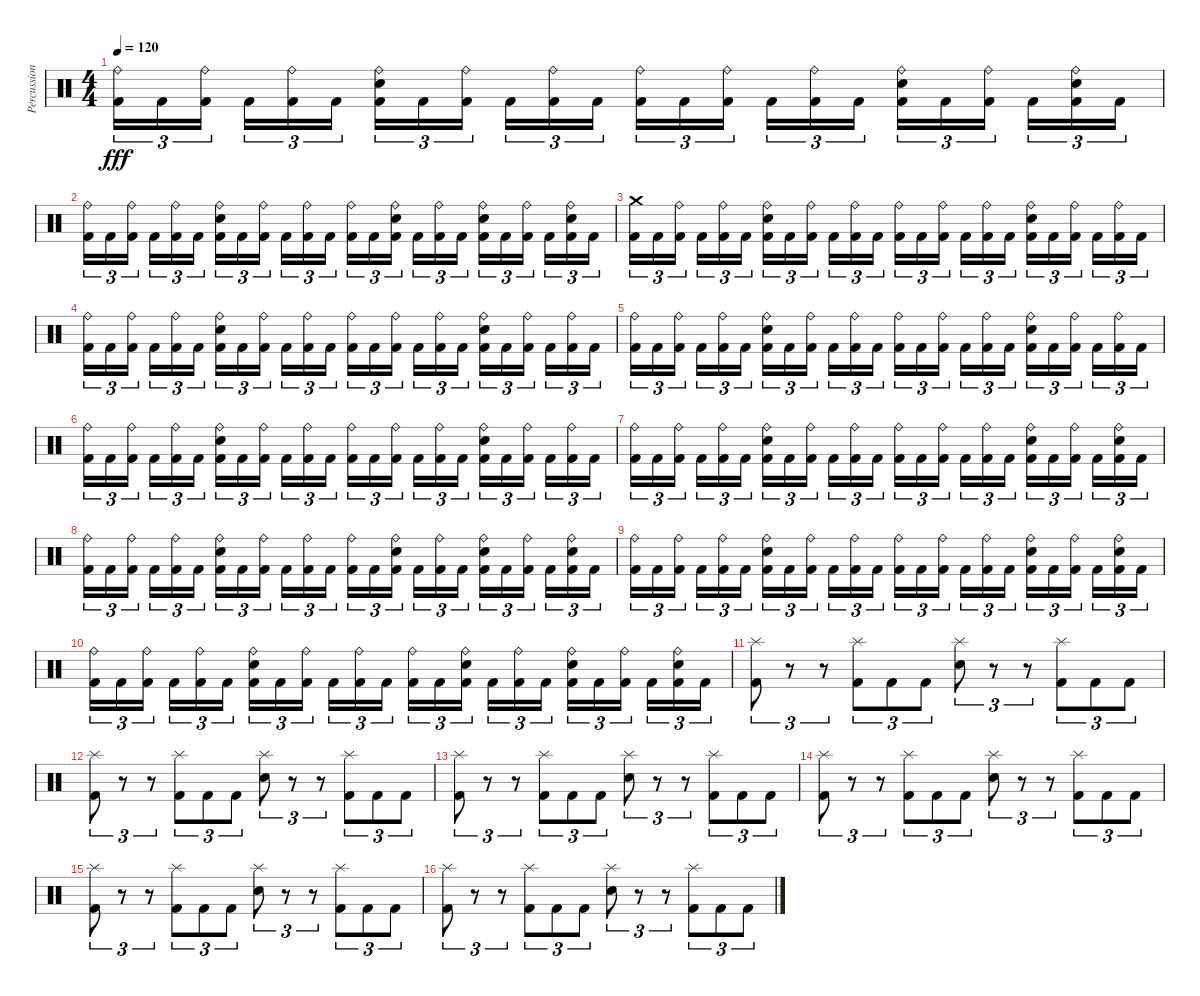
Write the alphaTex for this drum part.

\track ("Percussions" "Percussion") {instrument percussion}
\staff {score}
\articulation defaults
\ts (4 4)
\tempo 120
\clef neutral
\ks c
("Ride (bell)" "Kick (hit) 2").16{tu (3 2) dy fff} "Kick (hit) 2".16{tu (3 2)} ("Ride (bell)" "Kick (hit) 2").16{tu (3 2) beam splitsecondary} "Kick (hit) 2".16{tu (3 2)} ("Ride (bell)" "Kick (hit) 2").16{tu (3 2)} "Kick (hit) 2".16{tu (3 2)} ("Ride (bell)" "Snare (hit) 2" "Kick (hit) 2").16{tu (3 2)} "Kick (hit) 2".16{tu (3 2)} ("Ride (bell)" "Kick (hit) 2").16{tu (3 2) beam splitsecondary} "Kick (hit) 2".16{tu (3 2)} ("Ride (bell)" "Kick (hit) 2").16{tu (3 2)} "Kick (hit) 2".16{tu (3 2)} ("Ride (bell)" "Kick (hit) 2").16{tu (3 2)} "Kick (hit) 2".16{tu (3 2)} ("Ride (bell)" "Kick (hit) 2").16{tu (3 2) beam splitsecondary} "Kick (hit) 2".16{tu (3 2)} ("Ride (bell)" "Kick (hit) 2").16{tu (3 2)} "Kick (hit) 2".16{tu (3 2)} ("Ride (bell)" "Snare (hit) 2" "Kick (hit) 2").16{tu (3 2)} "Kick (hit) 2".16{tu (3 2)} ("Ride (bell)" "Kick (hit) 2").16{tu (3 2) beam splitsecondary} "Kick (hit) 2".16{tu (3 2)} ("Ride (bell)" "Snare (hit) 2" "Kick (hit) 2").16{tu (3 2)} "Kick (hit) 2".16{tu (3 2)} |
("Ride (bell)" "Kick (hit) 2").16{tu (3 2)} "Kick (hit) 2".16{tu (3 2)} ("Ride (bell)" "Kick (hit) 2").16{tu (3 2) beam splitsecondary} "Kick (hit) 2".16{tu (3 2)} ("Ride (bell)" "Kick (hit) 2").16{tu (3 2)} "Kick (hit) 2".16{tu (3 2)} ("Ride (bell)" "Snare (hit) 2" "Kick (hit) 2").16{tu (3 2)} "Kick (hit) 2".16{tu (3 2)} ("Ride (bell)" "Kick (hit) 2").16{tu (3 2) beam splitsecondary} "Kick (hit) 2".16{tu (3 2)} ("Ride (bell)" "Kick (hit) 2").16{tu (3 2)} "Kick (hit) 2".16{tu (3 2)} ("Ride (bell)" "Kick (hit) 2").16{tu (3 2)} "Kick (hit) 2".16{tu (3 2)} ("Ride (bell)" "Snare (hit) 2" "Kick (hit) 2").16{tu (3 2) beam splitsecondary} "Kick (hit) 2".16{tu (3 2)} ("Ride (bell)" "Kick (hit) 2").16{tu (3 2)} "Kick (hit) 2".16{tu (3 2)} ("Ride (bell)" "Snare (hit) 2" "Kick (hit) 2").16{tu (3 2)} "Kick (hit) 2".16{tu (3 2)} ("Ride (bell)" "Kick (hit) 2").16{tu (3 2) beam splitsecondary} "Kick (hit) 2".16{tu (3 2)} ("Ride (bell)" "Snare (hit) 2" "Kick (hit) 2").16{tu (3 2)} "Kick (hit) 2".16{tu (3 2)} |
("Crash medium (hit)" "Kick (hit) 2").16{tu (3 2)} "Kick (hit) 2".16{tu (3 2)} ("Ride (bell)" "Kick (hit) 2").16{tu (3 2) beam splitsecondary} "Kick (hit) 2".16{tu (3 2)} ("Ride (bell)" "Kick (hit) 2").16{tu (3 2)} "Kick (hit) 2".16{tu (3 2)} ("Ride (bell)" "Snare (hit) 2" "Kick (hit) 2").16{tu (3 2)} "Kick (hit) 2".16{tu (3 2)} ("Ride (bell)" "Kick (hit) 2").16{tu (3 2) beam splitsecondary} "Kick (hit) 2".16{tu (3 2)} ("Ride (bell)" "Kick (hit) 2").16{tu (3 2)} "Kick (hit) 2".16{tu (3 2)} ("Ride (bell)" "Kick (hit) 2").16{tu (3 2)} "Kick (hit) 2".16{tu (3 2)} ("Ride (bell)" "Kick (hit) 2").16{tu (3 2) beam splitsecondary} "Kick (hit) 2".16{tu (3 2)} ("Ride (bell)" "Kick (hit) 2").16{tu (3 2)} "Kick (hit) 2".16{tu (3 2)} ("Ride (bell)" "Snare (hit) 2" "Kick (hit) 2").16{tu (3 2)} "Kick (hit) 2".16{tu (3 2)} ("Ride (bell)" "Kick (hit) 2").16{tu (3 2) beam splitsecondary} "Kick (hit) 2".16{tu (3 2)} ("Ride (bell)" "Kick (hit) 2").16{tu (3 2)} "Kick (hit) 2".16{tu (3 2)} |
("Ride (bell)" "Kick (hit) 2").16{tu (3 2)} "Kick (hit) 2".16{tu (3 2)} ("Ride (bell)" "Kick (hit) 2").16{tu (3 2) beam splitsecondary} "Kick (hit) 2".16{tu (3 2)} ("Ride (bell)" "Kick (hit) 2").16{tu (3 2)} "Kick (hit) 2".16{tu (3 2)} ("Ride (bell)" "Snare (hit) 2" "Kick (hit) 2").16{tu (3 2)} "Kick (hit) 2".16{tu (3 2)} ("Ride (bell)" "Kick (hit) 2").16{tu (3 2) beam splitsecondary} "Kick (hit) 2".16{tu (3 2)} ("Ride (bell)" "Kick (hit) 2").16{tu (3 2)} "Kick (hit) 2".16{tu (3 2)} ("Ride (bell)" "Kick (hit) 2").16{tu (3 2)} "Kick (hit) 2".16{tu (3 2)} ("Ride (bell)" "Kick (hit) 2").16{tu (3 2) beam splitsecondary} "Kick (hit) 2".16{tu (3 2)} ("Ride (bell)" "Kick (hit) 2").16{tu (3 2)} "Kick (hit) 2".16{tu (3 2)} ("Ride (bell)" "Snare (hit) 2" "Kick (hit) 2").16{tu (3 2)} "Kick (hit) 2".16{tu (3 2)} ("Ride (bell)" "Kick (hit) 2").16{tu (3 2) beam splitsecondary} "Kick (hit) 2".16{tu (3 2)} ("Ride (bell)" "Kick (hit) 2").16{tu (3 2)} "Kick (hit) 2".16{tu (3 2)} |
("Ride (bell)" "Kick (hit) 2").16{tu (3 2)} "Kick (hit) 2".16{tu (3 2)} ("Ride (bell)" "Kick (hit) 2").16{tu (3 2) beam splitsecondary} "Kick (hit) 2".16{tu (3 2)} ("Ride (bell)" "Kick (hit) 2").16{tu (3 2)} "Kick (hit) 2".16{tu (3 2)} ("Ride (bell)" "Snare (hit) 2" "Kick (hit) 2").16{tu (3 2)} "Kick (hit) 2".16{tu (3 2)} ("Ride (bell)" "Kick (hit) 2").16{tu (3 2) beam splitsecondary} "Kick (hit) 2".16{tu (3 2)} ("Ride (bell)" "Kick (hit) 2").16{tu (3 2)} "Kick (hit) 2".16{tu (3 2)} ("Ride (bell)" "Kick (hit) 2").16{tu (3 2)} "Kick (hit) 2".16{tu (3 2)} ("Ride (bell)" "Kick (hit) 2").16{tu (3 2) beam splitsecondary} "Kick (hit) 2".16{tu (3 2)} ("Ride (bell)" "Kick (hit) 2").16{tu (3 2)} "Kick (hit) 2".16{tu (3 2)} ("Ride (bell)" "Snare (hit) 2" "Kick (hit) 2").16{tu (3 2)} "Kick (hit) 2".16{tu (3 2)} ("Ride (bell)" "Kick (hit) 2").16{tu (3 2) beam splitsecondary} "Kick (hit) 2".16{tu (3 2)} ("Ride (bell)" "Kick (hit) 2").16{tu (3 2)} "Kick (hit) 2".16{tu (3 2)} |
("Ride (bell)" "Kick (hit) 2").16{tu (3 2)} "Kick (hit) 2".16{tu (3 2)} ("Ride (bell)" "Kick (hit) 2").16{tu (3 2) beam splitsecondary} "Kick (hit) 2".16{tu (3 2)} ("Ride (bell)" "Kick (hit) 2").16{tu (3 2)} "Kick (hit) 2".16{tu (3 2)} ("Ride (bell)" "Snare (hit) 2" "Kick (hit) 2").16{tu (3 2)} "Kick (hit) 2".16{tu (3 2)} ("Ride (bell)" "Kick (hit) 2").16{tu (3 2) beam splitsecondary} "Kick (hit) 2".16{tu (3 2)} ("Ride (bell)" "Kick (hit) 2").16{tu (3 2)} "Kick (hit) 2".16{tu (3 2)} ("Ride (bell)" "Kick (hit) 2").16{tu (3 2)} "Kick (hit) 2".16{tu (3 2)} ("Ride (bell)" "Kick (hit) 2").16{tu (3 2) beam splitsecondary} "Kick (hit) 2".16{tu (3 2)} ("Ride (bell)" "Kick (hit) 2").16{tu (3 2)} "Kick (hit) 2".16{tu (3 2)} ("Ride (bell)" "Snare (hit) 2" "Kick (hit) 2").16{tu (3 2)} "Kick (hit) 2".16{tu (3 2)} ("Ride (bell)" "Kick (hit) 2").16{tu (3 2) beam splitsecondary} "Kick (hit) 2".16{tu (3 2)} ("Ride (bell)" "Kick (hit) 2").16{tu (3 2)} "Kick (hit) 2".16{tu (3 2)} |
("Ride (bell)" "Kick (hit) 2").16{tu (3 2)} "Kick (hit) 2".16{tu (3 2)} ("Ride (bell)" "Kick (hit) 2").16{tu (3 2) beam splitsecondary} "Kick (hit) 2".16{tu (3 2)} ("Ride (bell)" "Kick (hit) 2").16{tu (3 2)} "Kick (hit) 2".16{tu (3 2)} ("Ride (bell)" "Snare (hit) 2" "Kick (hit) 2").16{tu (3 2)} "Kick (hit) 2".16{tu (3 2)} ("Ride (bell)" "Kick (hit) 2").16{tu (3 2) beam splitsecondary} "Kick (hit) 2".16{tu (3 2)} ("Ride (bell)" "Kick (hit) 2").16{tu (3 2)} "Kick (hit) 2".16{tu (3 2)} ("Ride (bell)" "Kick (hit) 2").16{tu (3 2)} "Kick (hit) 2".16{tu (3 2)} ("Ride (bell)" "Kick (hit) 2").16{tu (3 2) beam splitsecondary} "Kick (hit) 2".16{tu (3 2)} ("Ride (bell)" "Kick (hit) 2").16{tu (3 2)} "Kick (hit) 2".16{tu (3 2)} ("Ride (bell)" "Snare (hit) 2" "Kick (hit) 2").16{tu (3 2)} "Kick (hit) 2".16{tu (3 2)} ("Ride (bell)" "Kick (hit) 2").16{tu (3 2) beam splitsecondary} "Kick (hit) 2".16{tu (3 2)} ("Ride (bell)" "Snare (hit) 2" "Kick (hit) 2").16{tu (3 2)} "Kick (hit) 2".16{tu (3 2)} |
("Ride (bell)" "Kick (hit) 2").16{tu (3 2)} "Kick (hit) 2".16{tu (3 2)} ("Ride (bell)" "Kick (hit) 2").16{tu (3 2) beam splitsecondary} "Kick (hit) 2".16{tu (3 2)} ("Ride (bell)" "Kick (hit) 2").16{tu (3 2)} "Kick (hit) 2".16{tu (3 2)} ("Ride (bell)" "Snare (hit) 2" "Kick (hit) 2").16{tu (3 2)} "Kick (hit) 2".16{tu (3 2)} ("Ride (bell)" "Kick (hit) 2").16{tu (3 2) beam splitsecondary} "Kick (hit) 2".16{tu (3 2)} ("Ride (bell)" "Kick (hit) 2").16{tu (3 2)} "Kick (hit) 2".16{tu (3 2)} ("Ride (bell)" "Kick (hit) 2").16{tu (3 2)} "Kick (hit) 2".16{tu (3 2)} ("Ride (bell)" "Snare (hit) 2" "Kick (hit) 2").16{tu (3 2) beam splitsecondary} "Kick (hit) 2".16{tu (3 2)} ("Ride (bell)" "Kick (hit) 2").16{tu (3 2)} "Kick (hit) 2".16{tu (3 2)} ("Ride (bell)" "Snare (hit) 2" "Kick (hit) 2").16{tu (3 2)} "Kick (hit) 2".16{tu (3 2)} ("Ride (bell)" "Kick (hit) 2").16{tu (3 2) beam splitsecondary} "Kick (hit) 2".16{tu (3 2)} ("Ride (bell)" "Snare (hit) 2" "Kick (hit) 2").16{tu (3 2)} "Kick (hit) 2".16{tu (3 2)} |
("Ride (bell)" "Kick (hit) 2").16{tu (3 2)} "Kick (hit) 2".16{tu (3 2)} ("Ride (bell)" "Kick (hit) 2").16{tu (3 2) beam splitsecondary} "Kick (hit) 2".16{tu (3 2)} ("Ride (bell)" "Kick (hit) 2").16{tu (3 2)} "Kick (hit) 2".16{tu (3 2)} ("Ride (bell)" "Snare (hit) 2" "Kick (hit) 2").16{tu (3 2)} "Kick (hit) 2".16{tu (3 2)} ("Ride (bell)" "Kick (hit) 2").16{tu (3 2) beam splitsecondary} "Kick (hit) 2".16{tu (3 2)} ("Ride (bell)" "Kick (hit) 2").16{tu (3 2)} "Kick (hit) 2".16{tu (3 2)} ("Ride (bell)" "Kick (hit) 2").16{tu (3 2)} "Kick (hit) 2".16{tu (3 2)} ("Ride (bell)" "Kick (hit) 2").16{tu (3 2) beam splitsecondary} "Kick (hit) 2".16{tu (3 2)} ("Ride (bell)" "Kick (hit) 2").16{tu (3 2)} "Kick (hit) 2".16{tu (3 2)} ("Ride (bell)" "Snare (hit) 2" "Kick (hit) 2").16{tu (3 2)} "Kick (hit) 2".16{tu (3 2)} ("Ride (bell)" "Kick (hit) 2").16{tu (3 2) beam splitsecondary} "Kick (hit) 2".16{tu (3 2)} ("Ride (bell)" "Snare (hit) 2" "Kick (hit) 2").16{tu (3 2)} "Kick (hit) 2".16{tu (3 2)} |
("Ride (bell)" "Kick (hit) 2").16{tu (3 2)} "Kick (hit) 2".16{tu (3 2)} ("Ride (bell)" "Kick (hit) 2").16{tu (3 2) beam splitsecondary} "Kick (hit) 2".16{tu (3 2)} ("Ride (bell)" "Kick (hit) 2").16{tu (3 2)} "Kick (hit) 2".16{tu (3 2)} ("Ride (bell)" "Snare (hit) 2" "Kick (hit) 2").16{tu (3 2)} "Kick (hit) 2".16{tu (3 2)} ("Ride (bell)" "Kick (hit) 2").16{tu (3 2) beam splitsecondary} "Kick (hit) 2".16{tu (3 2)} ("Ride (bell)" "Kick (hit) 2").16{tu (3 2)} "Kick (hit) 2".16{tu (3 2)} ("Ride (bell)" "Kick (hit) 2").16{tu (3 2)} "Kick (hit) 2".16{tu (3 2)} ("Ride (bell)" "Snare (hit) 2" "Kick (hit) 2").16{tu (3 2) beam splitsecondary} "Kick (hit) 2".16{tu (3 2)} ("Ride (bell)" "Kick (hit) 2").16{tu (3 2)} "Kick (hit) 2".16{tu (3 2)} ("Ride (bell)" "Snare (hit) 2" "Kick (hit) 2").16{tu (3 2)} "Kick (hit) 2".16{tu (3 2)} ("Ride (bell)" "Kick (hit) 2").16{tu (3 2) beam splitsecondary} "Kick (hit) 2".16{tu (3 2)} ("Ride (bell)" "Snare (hit) 2" "Kick (hit) 2").16{tu (3 2)} "Kick (hit) 2".16{tu (3 2)} |
("Splash (hit)" "Kick (hit) 2").8{tu (3 2)} r.8{tu (3 2)} r.8{tu (3 2)} ("Splash (hit)" "Kick (hit) 2").8{tu (3 2)} "Kick (hit) 2".8{tu (3 2)} "Kick (hit) 2".8{tu (3 2)} ("Splash (hit)" "Snare (hit) 2").8{tu (3 2)} r.8{tu (3 2)} r.8{tu (3 2)} ("Splash (hit)" "Kick (hit) 2").8{tu (3 2)} "Kick (hit) 2".8{tu (3 2)} "Kick (hit) 2".8{tu (3 2)} |
("Splash (hit)" "Kick (hit) 2").8{tu (3 2)} r.8{tu (3 2)} r.8{tu (3 2)} ("Splash (hit)" "Kick (hit) 2").8{tu (3 2)} "Kick (hit) 2".8{tu (3 2)} "Kick (hit) 2".8{tu (3 2)} ("Splash (hit)" "Snare (hit) 2").8{tu (3 2)} r.8{tu (3 2)} r.8{tu (3 2)} ("Splash (hit)" "Kick (hit) 2").8{tu (3 2)} "Kick (hit) 2".8{tu (3 2)} "Kick (hit) 2".8{tu (3 2)} |
("Splash (hit)" "Kick (hit) 2").8{tu (3 2)} r.8{tu (3 2)} r.8{tu (3 2)} ("Splash (hit)" "Kick (hit) 2").8{tu (3 2)} "Kick (hit) 2".8{tu (3 2)} "Kick (hit) 2".8{tu (3 2)} ("Splash (hit)" "Snare (hit) 2").8{tu (3 2)} r.8{tu (3 2)} r.8{tu (3 2)} ("Splash (hit)" "Kick (hit) 2").8{tu (3 2)} "Kick (hit) 2".8{tu (3 2)} "Kick (hit) 2".8{tu (3 2)} |
("Splash (hit)" "Kick (hit) 2").8{tu (3 2)} r.8{tu (3 2)} r.8{tu (3 2)} ("Splash (hit)" "Kick (hit) 2").8{tu (3 2)} "Kick (hit) 2".8{tu (3 2)} "Kick (hit) 2".8{tu (3 2)} ("Splash (hit)" "Snare (hit) 2").8{tu (3 2)} r.8{tu (3 2)} r.8{tu (3 2)} ("Splash (hit)" "Kick (hit) 2").8{tu (3 2)} "Kick (hit) 2".8{tu (3 2)} "Kick (hit) 2".8{tu (3 2)} |
("Splash (hit)" "Kick (hit) 2").8{tu (3 2)} r.8{tu (3 2)} r.8{tu (3 2)} ("Splash (hit)" "Kick (hit) 2").8{tu (3 2)} "Kick (hit) 2".8{tu (3 2)} "Kick (hit) 2".8{tu (3 2)} ("Splash (hit)" "Snare (hit) 2").8{tu (3 2)} r.8{tu (3 2)} r.8{tu (3 2)} ("Splash (hit)" "Kick (hit) 2").8{tu (3 2)} "Kick (hit) 2".8{tu (3 2)} "Kick (hit) 2".8{tu (3 2)} |
("Splash (hit)" "Kick (hit) 2").8{tu (3 2)} r.8{tu (3 2)} r.8{tu (3 2)} ("Splash (hit)" "Kick (hit) 2").8{tu (3 2)} "Kick (hit) 2".8{tu (3 2)} "Kick (hit) 2".8{tu (3 2)} ("Splash (hit)" "Snare (hit) 2").8{tu (3 2)} r.8{tu (3 2)} r.8{tu (3 2)} ("Splash (hit)" "Kick (hit) 2").8{tu (3 2)} "Kick (hit) 2".8{tu (3 2)} "Kick (hit) 2".8{tu (3 2)}
